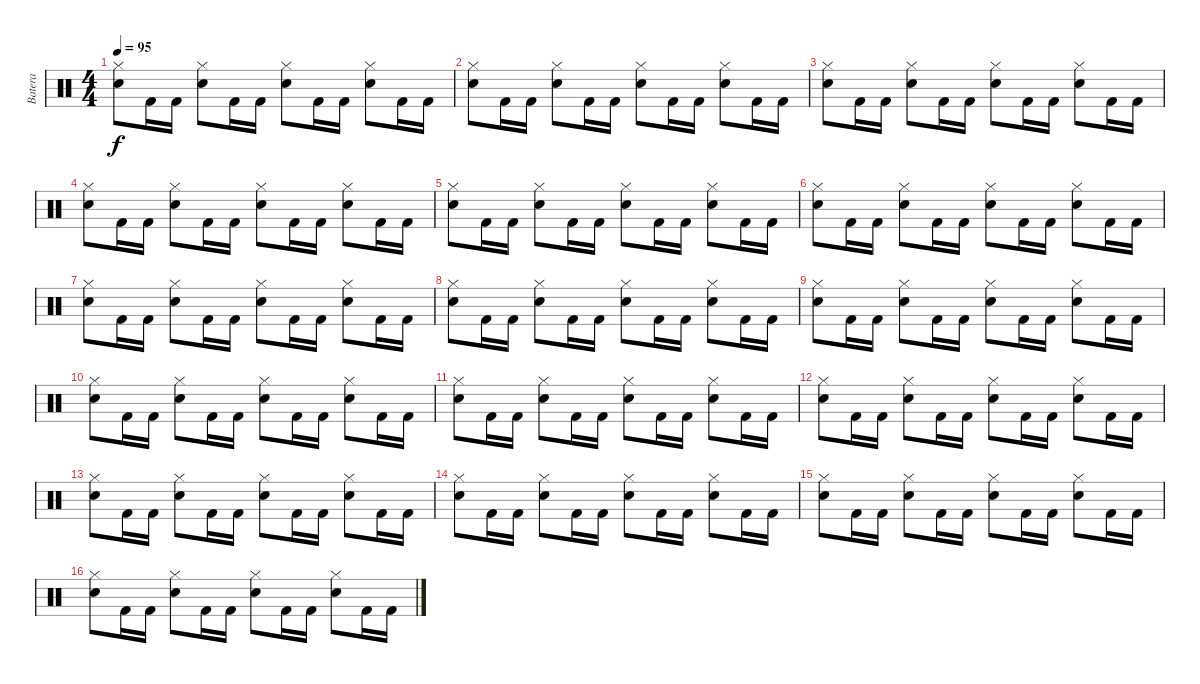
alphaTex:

\track ("Batera" "Batera") {instrument percussion}
\staff {score}
\articulation defaults
\ts (4 4)
\tempo 95
\clef neutral
\ks c
("Hi-Hat (closed)" "Snare (hit) 2").8{dy f} "Kick (hit) 2".16 "Kick (hit) 2".16 ("Hi-Hat (closed)" "Snare (hit) 2").8 "Kick (hit) 2".16 "Kick (hit) 2".16 ("Hi-Hat (closed)" "Snare (hit) 2").8 "Kick (hit) 2".16 "Kick (hit) 2".16 ("Hi-Hat (closed)" "Snare (hit) 2").8 "Kick (hit) 2".16 "Kick (hit) 2".16 |
("Hi-Hat (closed)" "Snare (hit) 2").8 "Kick (hit) 2".16 "Kick (hit) 2".16 ("Hi-Hat (closed)" "Snare (hit) 2").8 "Kick (hit) 2".16 "Kick (hit) 2".16 ("Hi-Hat (closed)" "Snare (hit) 2").8 "Kick (hit) 2".16 "Kick (hit) 2".16 ("Hi-Hat (closed)" "Snare (hit) 2").8 "Kick (hit) 2".16 "Kick (hit) 2".16 |
("Hi-Hat (closed)" "Snare (hit) 2").8 "Kick (hit) 2".16 "Kick (hit) 2".16 ("Hi-Hat (closed)" "Snare (hit) 2").8 "Kick (hit) 2".16 "Kick (hit) 2".16 ("Hi-Hat (closed)" "Snare (hit) 2").8 "Kick (hit) 2".16 "Kick (hit) 2".16 ("Hi-Hat (closed)" "Snare (hit) 2").8 "Kick (hit) 2".16 "Kick (hit) 2".16 |
("Hi-Hat (closed)" "Snare (hit) 2").8 "Kick (hit) 2".16 "Kick (hit) 2".16 ("Hi-Hat (closed)" "Snare (hit) 2").8 "Kick (hit) 2".16 "Kick (hit) 2".16 ("Hi-Hat (closed)" "Snare (hit) 2").8 "Kick (hit) 2".16 "Kick (hit) 2".16 ("Hi-Hat (closed)" "Snare (hit) 2").8 "Kick (hit) 2".16 "Kick (hit) 2".16 |
("Hi-Hat (closed)" "Snare (hit) 2").8 "Kick (hit) 2".16 "Kick (hit) 2".16 ("Hi-Hat (closed)" "Snare (hit) 2").8 "Kick (hit) 2".16 "Kick (hit) 2".16 ("Hi-Hat (closed)" "Snare (hit) 2").8 "Kick (hit) 2".16 "Kick (hit) 2".16 ("Hi-Hat (closed)" "Snare (hit) 2").8 "Kick (hit) 2".16 "Kick (hit) 2".16 |
("Hi-Hat (closed)" "Snare (hit) 2").8 "Kick (hit) 2".16 "Kick (hit) 2".16 ("Hi-Hat (closed)" "Snare (hit) 2").8 "Kick (hit) 2".16 "Kick (hit) 2".16 ("Hi-Hat (closed)" "Snare (hit) 2").8 "Kick (hit) 2".16 "Kick (hit) 2".16 ("Hi-Hat (closed)" "Snare (hit) 2").8 "Kick (hit) 2".16 "Kick (hit) 2".16 |
("Hi-Hat (closed)" "Snare (hit) 2").8 "Kick (hit) 2".16 "Kick (hit) 2".16 ("Hi-Hat (closed)" "Snare (hit) 2").8 "Kick (hit) 2".16 "Kick (hit) 2".16 ("Hi-Hat (closed)" "Snare (hit) 2").8 "Kick (hit) 2".16 "Kick (hit) 2".16 ("Hi-Hat (closed)" "Snare (hit) 2").8 "Kick (hit) 2".16 "Kick (hit) 2".16 |
("Hi-Hat (closed)" "Snare (hit) 2").8 "Kick (hit) 2".16 "Kick (hit) 2".16 ("Hi-Hat (closed)" "Snare (hit) 2").8 "Kick (hit) 2".16 "Kick (hit) 2".16 ("Hi-Hat (closed)" "Snare (hit) 2").8 "Kick (hit) 2".16 "Kick (hit) 2".16 ("Hi-Hat (closed)" "Snare (hit) 2").8 "Kick (hit) 2".16 "Kick (hit) 2".16 |
("Hi-Hat (closed)" "Snare (hit) 2").8 "Kick (hit) 2".16 "Kick (hit) 2".16 ("Hi-Hat (closed)" "Snare (hit) 2").8 "Kick (hit) 2".16 "Kick (hit) 2".16 ("Hi-Hat (closed)" "Snare (hit) 2").8 "Kick (hit) 2".16 "Kick (hit) 2".16 ("Hi-Hat (closed)" "Snare (hit) 2").8 "Kick (hit) 2".16 "Kick (hit) 2".16 |
("Hi-Hat (closed)" "Snare (hit) 2").8 "Kick (hit) 2".16 "Kick (hit) 2".16 ("Hi-Hat (closed)" "Snare (hit) 2").8 "Kick (hit) 2".16 "Kick (hit) 2".16 ("Hi-Hat (closed)" "Snare (hit) 2").8 "Kick (hit) 2".16 "Kick (hit) 2".16 ("Hi-Hat (closed)" "Snare (hit) 2").8 "Kick (hit) 2".16 "Kick (hit) 2".16 |
("Hi-Hat (closed)" "Snare (hit) 2").8 "Kick (hit) 2".16 "Kick (hit) 2".16 ("Hi-Hat (closed)" "Snare (hit) 2").8 "Kick (hit) 2".16 "Kick (hit) 2".16 ("Hi-Hat (closed)" "Snare (hit) 2").8 "Kick (hit) 2".16 "Kick (hit) 2".16 ("Hi-Hat (closed)" "Snare (hit) 2").8 "Kick (hit) 2".16 "Kick (hit) 2".16 |
("Hi-Hat (closed)" "Snare (hit) 2").8 "Kick (hit) 2".16 "Kick (hit) 2".16 ("Hi-Hat (closed)" "Snare (hit) 2").8 "Kick (hit) 2".16 "Kick (hit) 2".16 ("Hi-Hat (closed)" "Snare (hit) 2").8 "Kick (hit) 2".16 "Kick (hit) 2".16 ("Hi-Hat (closed)" "Snare (hit) 2").8 "Kick (hit) 2".16 "Kick (hit) 2".16 |
("Hi-Hat (closed)" "Snare (hit) 2").8 "Kick (hit) 2".16 "Kick (hit) 2".16 ("Hi-Hat (closed)" "Snare (hit) 2").8 "Kick (hit) 2".16 "Kick (hit) 2".16 ("Hi-Hat (closed)" "Snare (hit) 2").8 "Kick (hit) 2".16 "Kick (hit) 2".16 ("Hi-Hat (closed)" "Snare (hit) 2").8 "Kick (hit) 2".16 "Kick (hit) 2".16 |
("Hi-Hat (closed)" "Snare (hit) 2").8 "Kick (hit) 2".16 "Kick (hit) 2".16 ("Hi-Hat (closed)" "Snare (hit) 2").8 "Kick (hit) 2".16 "Kick (hit) 2".16 ("Hi-Hat (closed)" "Snare (hit) 2").8 "Kick (hit) 2".16 "Kick (hit) 2".16 ("Hi-Hat (closed)" "Snare (hit) 2").8 "Kick (hit) 2".16 "Kick (hit) 2".16 |
("Hi-Hat (closed)" "Snare (hit) 2").8 "Kick (hit) 2".16 "Kick (hit) 2".16 ("Hi-Hat (closed)" "Snare (hit) 2").8 "Kick (hit) 2".16 "Kick (hit) 2".16 ("Hi-Hat (closed)" "Snare (hit) 2").8 "Kick (hit) 2".16 "Kick (hit) 2".16 ("Hi-Hat (closed)" "Snare (hit) 2").8 "Kick (hit) 2".16 "Kick (hit) 2".16 |
("Hi-Hat (closed)" "Snare (hit) 2").8 "Kick (hit) 2".16 "Kick (hit) 2".16 ("Hi-Hat (closed)" "Snare (hit) 2").8 "Kick (hit) 2".16 "Kick (hit) 2".16 ("Hi-Hat (closed)" "Snare (hit) 2").8 "Kick (hit) 2".16 "Kick (hit) 2".16 ("Hi-Hat (closed)" "Snare (hit) 2").8 "Kick (hit) 2".16 "Kick (hit) 2".16
